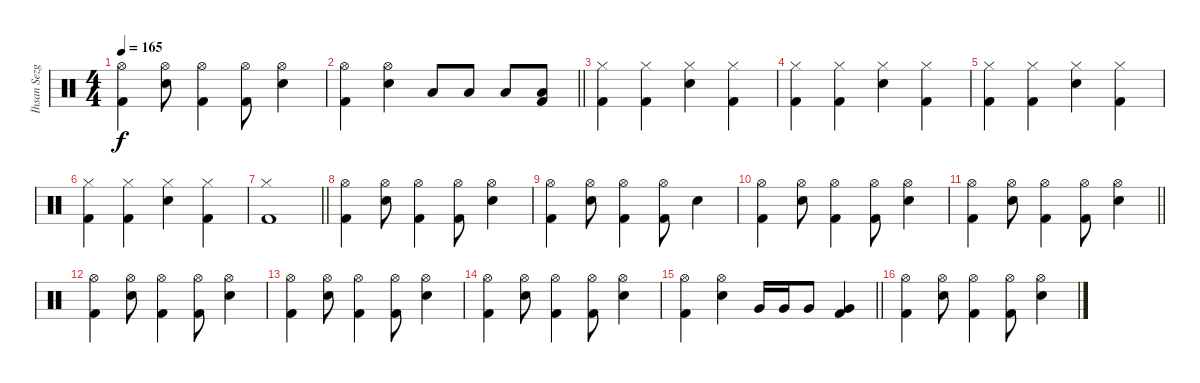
\track ("İhsan Sezgin" "İhsan Sezg") {instrument percussion}
\staff {score}
\articulation defaults
\ts (4 4)
\tempo 165
\clef neutral
\ks c
("Hi-Hat (open)" "Kick (hit) 2").4{dy f} ("Snare (hit) 2" "Hi-Hat (open)").8 ("Hi-Hat (open)" "Kick (hit) 2").4 ("Hi-Hat (open)" "Kick (hit) 2").8 ("Snare (hit) 2" "Hi-Hat (open)").4 |
\barLineRight lightlight
("Hi-Hat (open)" "Kick (hit) 2").4 ("Snare (hit) 2" "Hi-Hat (open)").4 "Low Tom (hit)".8 "Low Tom (hit)".8 "Low Tom (hit)".8 ("Kick (hit) 2" "Low Tom (hit)").8 |
("Hi-Hat (closed)" "Kick (hit) 2").4 ("Hi-Hat (closed)" "Kick (hit) 2").4 ("Hi-Hat (closed)" "Snare (hit) 2").4 ("Hi-Hat (closed)" "Kick (hit) 2").4 |
("Hi-Hat (closed)" "Kick (hit) 2").4 ("Hi-Hat (closed)" "Kick (hit) 2").4 ("Hi-Hat (closed)" "Snare (hit) 2").4 ("Hi-Hat (closed)" "Kick (hit) 2").4 |
("Hi-Hat (closed)" "Kick (hit) 2").4 ("Hi-Hat (closed)" "Kick (hit) 2").4 ("Hi-Hat (closed)" "Snare (hit) 2").4 ("Hi-Hat (closed)" "Kick (hit) 2").4 |
("Hi-Hat (closed)" "Kick (hit) 2").4 ("Hi-Hat (closed)" "Kick (hit) 2").4 ("Hi-Hat (closed)" "Snare (hit) 2").4 ("Hi-Hat (closed)" "Kick (hit) 2").4 |
\barLineRight lightlight
("Hi-Hat (closed)" "Kick (hit) 2").1 |
("Hi-Hat (open)" "Kick (hit) 2").4 ("Snare (hit) 2" "Hi-Hat (open)").8 ("Hi-Hat (open)" "Kick (hit) 2").4 ("Hi-Hat (open)" "Kick (hit) 2").8 ("Snare (hit) 2" "Hi-Hat (open)").4 |
("Hi-Hat (open)" "Kick (hit) 2").4 ("Snare (hit) 2" "Hi-Hat (open)").8 ("Hi-Hat (open)" "Kick (hit) 2").4 ("Hi-Hat (open)" "Kick (hit) 2").8 "Snare (hit) 2".4 |
("Hi-Hat (open)" "Kick (hit) 2").4 ("Snare (hit) 2" "Hi-Hat (open)").8 ("Hi-Hat (open)" "Kick (hit) 2").4 ("Hi-Hat (open)" "Kick (hit) 2").8 ("Snare (hit) 2" "Hi-Hat (open)").4 |
\barLineRight lightlight
("Hi-Hat (open)" "Kick (hit) 2").4 ("Snare (hit) 2" "Hi-Hat (open)").8 ("Hi-Hat (open)" "Kick (hit) 2").4 ("Hi-Hat (open)" "Kick (hit) 2").8 ("Snare (hit) 2" "Hi-Hat (open)").4 |
("Hi-Hat (open)" "Kick (hit) 2").4 ("Snare (hit) 2" "Hi-Hat (open)").8 ("Hi-Hat (open)" "Kick (hit) 2").4 ("Hi-Hat (open)" "Kick (hit) 2").8 ("Snare (hit) 2" "Hi-Hat (open)").4 |
("Hi-Hat (open)" "Kick (hit) 2").4 ("Snare (hit) 2" "Hi-Hat (open)").8 ("Hi-Hat (open)" "Kick (hit) 2").4 ("Hi-Hat (open)" "Kick (hit) 2").8 ("Snare (hit) 2" "Hi-Hat (open)").4 |
("Hi-Hat (open)" "Kick (hit) 2").4 ("Snare (hit) 2" "Hi-Hat (open)").8 ("Hi-Hat (open)" "Kick (hit) 2").4 ("Hi-Hat (open)" "Kick (hit) 2").8 ("Snare (hit) 2" "Hi-Hat (open)").4 |
\barLineRight lightlight
("Hi-Hat (open)" "Kick (hit) 2").4 ("Snare (hit) 2" "Hi-Hat (open)").4 "Very Low Tom (hit)".16 "Very Low Tom (hit)".16 "Very Low Tom (hit)".8 ("Kick (hit) 2" "Very Low Tom (hit)").4 |
("Hi-Hat (open)" "Kick (hit) 2").4 ("Snare (hit) 2" "Hi-Hat (open)").8 ("Hi-Hat (open)" "Kick (hit) 2").4 ("Hi-Hat (open)" "Kick (hit) 2").8 ("Snare (hit) 2" "Hi-Hat (open)").4
